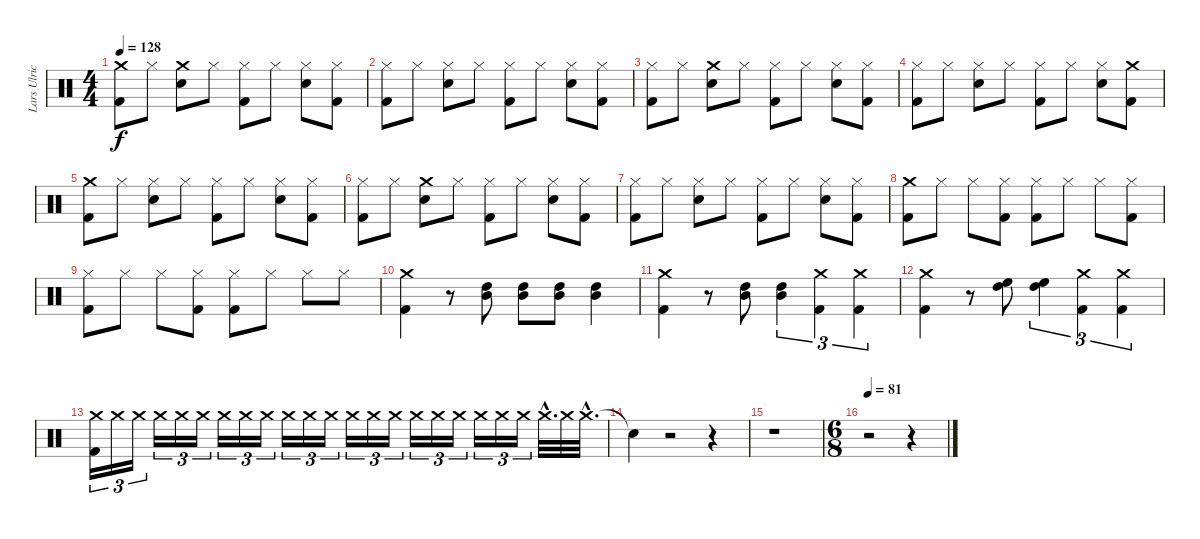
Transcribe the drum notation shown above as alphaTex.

\track ("Lars Ulrich" "Lars Ulric") {instrument percussion}
\staff {score}
\articulation defaults
\ts (4 4)
\tempo 128
\clef neutral
\ks c
("Crash medium (hit)" "Kick (hit) 2").8{dy f} "Hi-Hat (closed)".8 ("Crash medium (hit)" "Snare (hit) 2").8 "Hi-Hat (closed)".8 ("Hi-Hat (closed)" "Kick (hit) 2").8 "Hi-Hat (closed)".8 ("Snare (hit) 2" "Hi-Hat (closed)").8 ("Kick (hit) 2" "Hi-Hat (closed)").8 |
("Hi-Hat (closed)" "Kick (hit) 2").8 "Hi-Hat (closed)".8 ("Snare (hit) 2" "Hi-Hat (closed)").8 "Hi-Hat (closed)".8 ("Hi-Hat (closed)" "Kick (hit) 2").8 "Hi-Hat (closed)".8 ("Snare (hit) 2" "Hi-Hat (closed)").8 ("Hi-Hat (closed)" "Kick (hit) 2").8 |
("Hi-Hat (closed)" "Kick (hit) 2").8 "Hi-Hat (closed)".8 ("Crash medium (hit)" "Snare (hit) 2").8 "Hi-Hat (closed)".8 ("Hi-Hat (closed)" "Kick (hit) 2").8 "Hi-Hat (closed)".8 ("Snare (hit) 2" "Hi-Hat (closed)").8 ("Kick (hit) 2" "Hi-Hat (closed)").8 |
("Kick (hit) 2" "Hi-Hat (closed)").8 "Hi-Hat (closed)".8 ("Snare (hit) 2" "Hi-Hat (closed)").8 "Hi-Hat (closed)".8 ("Kick (hit) 2" "Hi-Hat (closed)").8 "Hi-Hat (closed)".8 ("Snare (hit) 2" "Hi-Hat (closed)").8 ("Crash medium (hit)" "Kick (hit) 2").8 |
("Crash medium (hit)" "Kick (hit) 2").8 "Hi-Hat (closed)".8 ("Snare (hit) 2" "Hi-Hat (closed)").8 "Hi-Hat (closed)".8 ("Hi-Hat (closed)" "Kick (hit) 2").8 "Hi-Hat (closed)".8 ("Snare (hit) 2" "Hi-Hat (closed)").8 ("Kick (hit) 2" "Hi-Hat (closed)").8 |
("Hi-Hat (closed)" "Kick (hit) 2").8 "Hi-Hat (closed)".8 ("Crash medium (hit)" "Snare (hit) 2").8 "Hi-Hat (closed)".8 ("Hi-Hat (closed)" "Kick (hit) 2").8 "Hi-Hat (closed)".8 ("Snare (hit) 2" "Hi-Hat (closed)").8 ("Hi-Hat (closed)" "Kick (hit) 2").8 |
("Hi-Hat (closed)" "Kick (hit) 2").8 "Hi-Hat (closed)".8 ("Hi-Hat (closed)" "Snare (hit) 2").8 "Hi-Hat (closed)".8 ("Hi-Hat (closed)" "Kick (hit) 2").8 "Hi-Hat (closed)".8 ("Snare (hit) 2" "Hi-Hat (closed)").8 ("Kick (hit) 2" "Hi-Hat (closed)").8 |
("Kick (hit) 2" "Crash medium (hit)").8 "Hi-Hat (closed)".8 "Hi-Hat (closed)".8 ("Kick (hit) 2" "Hi-Hat (closed)").8 ("Kick (hit) 2" "Hi-Hat (closed)").8 "Hi-Hat (closed)".8 "Hi-Hat (closed)".8 ("Kick (hit) 2" "Hi-Hat (closed)").8 |
("Hi-Hat (closed)" "Kick (hit) 2").8 "Hi-Hat (closed)".8 "Hi-Hat (closed)".8 ("Kick (hit) 2" "Hi-Hat (closed)").8 ("Hi-Hat (closed)" "Kick (hit) 2").8 "Hi-Hat (closed)".8 "Hi-Hat (closed)".8 "Hi-Hat (closed)".8 |
("Kick (hit) 2" "Crash medium (hit)").4 r.8 ("High Tom (hit)" "Mid Tom (hit)").8 ("High Tom (hit)" "Mid Tom (hit)").8 ("High Tom (hit)" "Mid Tom (hit)").8 ("High Tom (hit)" "Mid Tom (hit)").4 |
("Kick (hit) 2" "Crash medium (hit)").4 r.8 ("Mid Tom (hit)" "High Tom (hit)").8 ("High Tom (hit)" "Mid Tom (hit)").4{tu (3 2)} ("Kick (hit) 2" "Crash medium (hit)").4{tu (3 2)} ("Kick (hit) 2" "Crash medium (hit)").4{tu (3 2)} |
("Crash medium (hit)" "Kick (hit) 2").4 r.8 ("High Floor Tom (hit)" "High Tom (hit)").8 ("High Tom (hit)" "High Floor Tom (hit)").4{tu (3 2)} ("Kick (hit) 2" "Crash medium (hit)").4{tu (3 2)} ("Kick (hit) 2" "Crash medium (hit)").4{tu (3 2)} |
("Kick (hit) 2" "Crash medium (hit)").16{tu (3 2)} "Crash medium (hit)".16{tu (3 2)} "Crash medium (hit)".16{tu (3 2)} "Crash medium (hit)".16{tu (3 2)} "Crash medium (hit)".16{tu (3 2)} "Crash medium (hit)".16{tu (3 2)} "Crash medium (hit)".16{tu (3 2)} "Crash medium (hit)".16{tu (3 2)} "Crash medium (hit)".16{tu (3 2)} "Crash medium (hit)".16{tu (3 2)} "Crash medium (hit)".16{tu (3 2)} "Crash medium (hit)".16{tu (3 2)} "Crash medium (hit)".16{tu (3 2)} "Crash medium (hit)".16{tu (3 2)} "Crash medium (hit)".16{tu (3 2)} "Crash medium (hit)".16{tu (3 2)} "Crash medium (hit)".16{tu (3 2)} "Crash medium (hit)".16{tu (3 2)} "Crash medium (hit)".16{tu (3 2)} "Crash medium (hit)".16{tu (3 2)} "Crash medium (hit)".16{tu (3 2)} "Crash medium (hit)"{hac}.32{d} "Crash medium (hit)".32 "Crash medium (hit)"{hac}.32{d} |
"Snare (hit)"{t}.4 r.2 r.4 |
r.1 |
\ts (6 8)
\tempo 81
r.2 r.4
